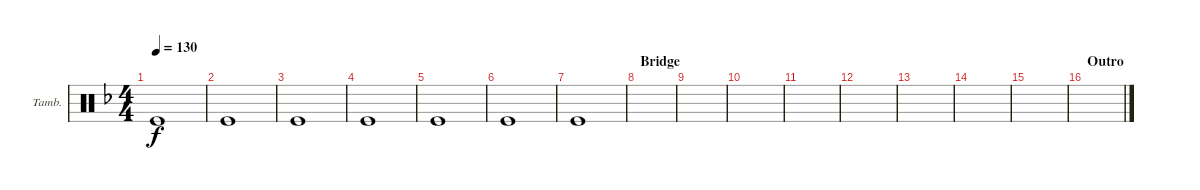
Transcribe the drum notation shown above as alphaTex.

\defaultSystemsLayout 4
\bracketExtendMode groupsimilarinstruments
\firstSystemTrackNameOrientation horizontal
\otherSystemsTrackNameOrientation horizontal
\track ("Tambourine" "Tamb.") {instrument percussion}
\staff {score}
\articulation defaults
\ts (4 4)
\tempo 130
\clef neutral
\ks dminor "Kick (hit)".1{dy f}
|
"Kick (hit)".1 |
"Kick (hit)".1 |
"Kick (hit)".1 |
"Kick (hit)".1 |
"Kick (hit)".1 |
"Kick (hit)".1 |
\section ("" "Bridge")
|
|
|
|
|
|
|
|
\section ("" "Outro")
